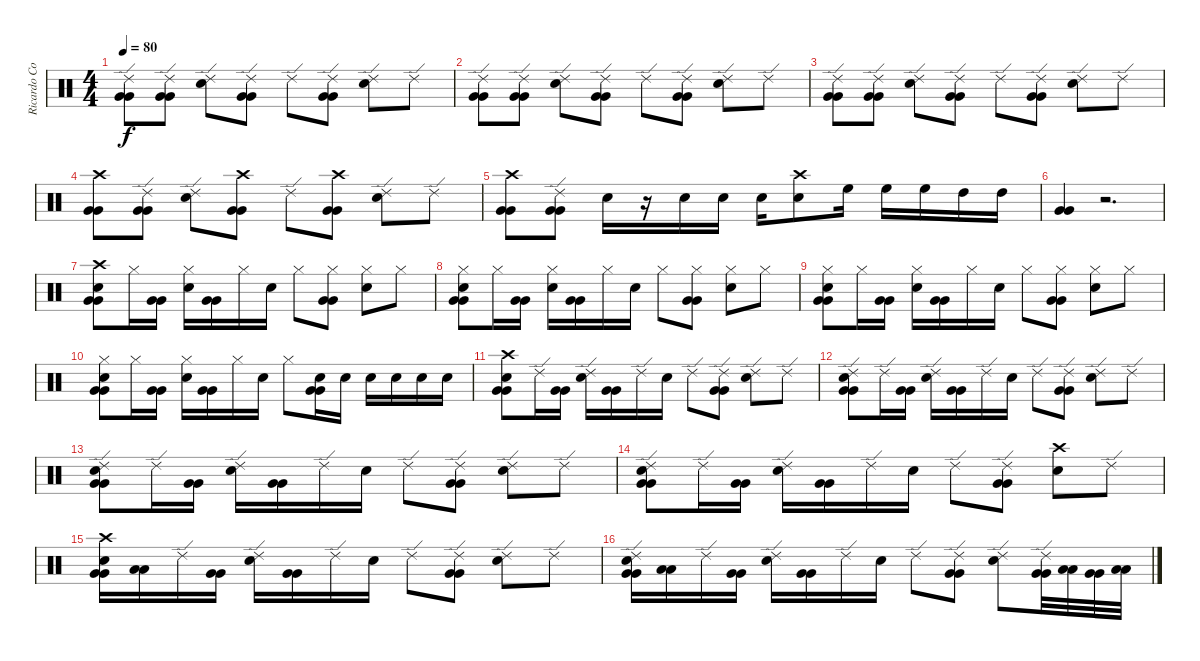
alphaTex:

\track ("Ricardo Confessori" "Ricardo Co") {instrument percussion}
\staff {score}
\articulation defaults
\ts (4 4)
\tempo 80
\clef neutral
\ks c
("Ride (edge) 2" "Very Low Tom (hit)" "Very Low Tom (hit)").8{dy f} ("Ride (edge) 2" "Very Low Tom (hit)" "Very Low Tom (hit)").8 ("Ride (edge) 2" "Electric Snare (hit)").8 ("Ride (edge) 2" "Very Low Tom (hit)" "Very Low Tom (hit)").8 "Ride (edge) 2".8 ("Ride (edge) 2" "Very Low Tom (hit)" "Very Low Tom (hit)").8 ("Ride (edge) 2" "Electric Snare (hit)").8 "Ride (edge) 2".8 |
("Ride (edge) 2" "Very Low Tom (hit)" "Very Low Tom (hit)").8 ("Ride (edge) 2" "Very Low Tom (hit)" "Very Low Tom (hit)").8 ("Ride (edge) 2" "Electric Snare (hit)").8 ("Ride (edge) 2" "Very Low Tom (hit)" "Very Low Tom (hit)").8 "Ride (edge) 2".8 ("Ride (edge) 2" "Very Low Tom (hit)" "Very Low Tom (hit)").8 ("Ride (edge) 2" "Electric Snare (hit)").8 "Ride (edge) 2".8 |
("Ride (edge) 2" "Very Low Tom (hit)" "Very Low Tom (hit)").8 ("Ride (edge) 2" "Very Low Tom (hit)" "Very Low Tom (hit)").8 ("Ride (edge) 2" "Electric Snare (hit)").8 ("Ride (edge) 2" "Very Low Tom (hit)" "Very Low Tom (hit)").8 "Ride (edge) 2".8 ("Ride (edge) 2" "Very Low Tom (hit)" "Very Low Tom (hit)").8 ("Ride (edge) 2" "Electric Snare (hit)").8 "Ride (edge) 2".8 |
("Crash high (hit)" "Very Low Tom (hit)" "Very Low Tom (hit)").8 ("Ride (edge) 2" "Very Low Tom (hit)" "Very Low Tom (hit)").8 ("Ride (edge) 2" "Electric Snare (hit)").8 ("Crash high (hit)" "Very Low Tom (hit)" "Very Low Tom (hit)").8 "Ride (edge) 2".8 ("Crash high (hit)" "Very Low Tom (hit)" "Very Low Tom (hit)").8 ("Ride (edge) 2" "Electric Snare (hit)").8 "Ride (edge) 2".8 |
("Crash high (hit)" "Very Low Tom (hit)" "Very Low Tom (hit)").8 ("Ride (edge) 2" "Very Low Tom (hit)" "Very Low Tom (hit)").8 "Electric Snare (hit)".16 r.16 "Electric Snare (hit)".16 "Electric Snare (hit)".16 "Electric Snare (hit)".16 ("Crash high (hit)" "Electric Snare (hit)").8 "High Floor Tom (hit)".16 "High Floor Tom (hit)".16 "High Floor Tom (hit)".16 "High Tom (hit)".16 "High Tom (hit)".16 |
("Very Low Tom (hit)" "Very Low Tom (hit)").4 r.2{d} |
("Crash high (hit)" "Electric Snare (hit)" "Very Low Tom (hit)" "Very Low Tom (hit)").8 "Hi-Hat (closed)".16 ("Very Low Tom (hit)" "Very Low Tom (hit)").16 ("Electric Snare (hit)" "Hi-Hat (closed)").16 ("Very Low Tom (hit)" "Very Low Tom (hit)").16 "Hi-Hat (closed)".16 "Electric Snare (hit)".16 "Hi-Hat (closed)".8 ("Hi-Hat (closed)" "Very Low Tom (hit)" "Very Low Tom (hit)").8 ("Electric Snare (hit)" "Hi-Hat (closed)").8 "Hi-Hat (closed)".8 |
("Electric Snare (hit)" "Hi-Hat (closed)" "Very Low Tom (hit)" "Very Low Tom (hit)").8 "Hi-Hat (closed)".16 ("Very Low Tom (hit)" "Very Low Tom (hit)").16 ("Electric Snare (hit)" "Hi-Hat (closed)").16 ("Very Low Tom (hit)" "Very Low Tom (hit)").16 "Hi-Hat (closed)".16 "Electric Snare (hit)".16 "Hi-Hat (closed)".8 ("Hi-Hat (closed)" "Very Low Tom (hit)" "Very Low Tom (hit)").8 ("Electric Snare (hit)" "Hi-Hat (closed)").8 "Hi-Hat (closed)".8 |
("Electric Snare (hit)" "Hi-Hat (closed)" "Very Low Tom (hit)" "Very Low Tom (hit)").8 "Hi-Hat (closed)".16 ("Very Low Tom (hit)" "Very Low Tom (hit)").16 ("Electric Snare (hit)" "Hi-Hat (closed)").16 ("Very Low Tom (hit)" "Very Low Tom (hit)").16 "Hi-Hat (closed)".16 "Electric Snare (hit)".16 "Hi-Hat (closed)".8 ("Hi-Hat (closed)" "Very Low Tom (hit)" "Very Low Tom (hit)").8 ("Electric Snare (hit)" "Hi-Hat (closed)").8 "Hi-Hat (closed)".8 |
("Electric Snare (hit)" "Hi-Hat (closed)" "Very Low Tom (hit)" "Very Low Tom (hit)").8 "Hi-Hat (closed)".16 ("Very Low Tom (hit)" "Very Low Tom (hit)").16 ("Electric Snare (hit)" "Hi-Hat (closed)").16 ("Very Low Tom (hit)" "Very Low Tom (hit)").16 "Hi-Hat (closed)".16 "Electric Snare (hit)".16 "Hi-Hat (closed)".8 ("Electric Snare (hit)" "Very Low Tom (hit)" "Very Low Tom (hit)").16 "Electric Snare (hit)".16 "Electric Snare (hit)".16 "Electric Snare (hit)".16 "Electric Snare (hit)".16 "Electric Snare (hit)".16 |
("Crash high (hit)" "Electric Snare (hit)" "Very Low Tom (hit)" "Very Low Tom (hit)").8 "Ride (edge) 2".16 ("Very Low Tom (hit)" "Very Low Tom (hit)").16 ("Electric Snare (hit)" "Ride (edge) 2").16 ("Very Low Tom (hit)" "Very Low Tom (hit)").16 "Ride (edge) 2".16 "Electric Snare (hit)".16 "Ride (edge) 2".8 ("Ride (edge) 2" "Very Low Tom (hit)" "Very Low Tom (hit)").8 ("Electric Snare (hit)" "Ride (edge) 2").8 "Ride (edge) 2".8 |
("Electric Snare (hit)" "Ride (edge) 2" "Very Low Tom (hit)" "Very Low Tom (hit)").8 "Ride (edge) 2".16 ("Very Low Tom (hit)" "Very Low Tom (hit)").16 ("Electric Snare (hit)" "Ride (edge) 2").16 ("Very Low Tom (hit)" "Very Low Tom (hit)").16 "Ride (edge) 2".16 "Electric Snare (hit)".16 "Ride (edge) 2".8 ("Ride (edge) 2" "Very Low Tom (hit)" "Very Low Tom (hit)").8 ("Electric Snare (hit)" "Ride (edge) 2").8 "Ride (edge) 2".8 |
("Electric Snare (hit)" "Ride (edge) 2" "Very Low Tom (hit)" "Very Low Tom (hit)").8 "Ride (edge) 2".16 ("Very Low Tom (hit)" "Very Low Tom (hit)").16 ("Electric Snare (hit)" "Ride (edge) 2").16 ("Very Low Tom (hit)" "Very Low Tom (hit)").16 "Ride (edge) 2".16 "Electric Snare (hit)".16 "Ride (edge) 2".8 ("Ride (edge) 2" "Very Low Tom (hit)" "Very Low Tom (hit)").8 ("Electric Snare (hit)" "Ride (edge) 2").8 "Ride (edge) 2".8 |
("Electric Snare (hit)" "Ride (edge) 2" "Very Low Tom (hit)" "Very Low Tom (hit)").8 "Ride (edge) 2".16 ("Very Low Tom (hit)" "Very Low Tom (hit)").16 ("Electric Snare (hit)" "Ride (edge) 2").16 ("Very Low Tom (hit)" "Very Low Tom (hit)").16 "Ride (edge) 2".16 "Electric Snare (hit)".16 "Ride (edge) 2".8 ("Ride (edge) 2" "Very Low Tom (hit)" "Very Low Tom (hit)").8 ("Crash high (hit)" "Electric Snare (hit)").8 "Ride (edge) 2".8 |
("Crash high (hit)" "Electric Snare (hit)" "Very Low Tom (hit)" "Very Low Tom (hit)").16 ("Low Floor Tom (hit)" "Low Floor Tom (hit)").16 "Ride (edge) 2".16 ("Very Low Tom (hit)" "Very Low Tom (hit)").16 ("Electric Snare (hit)" "Ride (edge) 2").16 ("Very Low Tom (hit)" "Very Low Tom (hit)").16 "Ride (edge) 2".16 "Electric Snare (hit)".16 "Ride (edge) 2".8 ("Ride (edge) 2" "Very Low Tom (hit)" "Very Low Tom (hit)").8 ("Electric Snare (hit)" "Ride (edge) 2").8 "Ride (edge) 2".8 |
("Electric Snare (hit)" "Ride (edge) 2" "Very Low Tom (hit)" "Very Low Tom (hit)").16 ("Low Floor Tom (hit)" "Low Floor Tom (hit)").16 "Ride (edge) 2".16 ("Very Low Tom (hit)" "Very Low Tom (hit)").16 ("Electric Snare (hit)" "Ride (edge) 2").16 ("Very Low Tom (hit)" "Very Low Tom (hit)").16 "Ride (edge) 2".16 "Electric Snare (hit)".16 "Ride (edge) 2".8 ("Ride (edge) 2" "Very Low Tom (hit)" "Very Low Tom (hit)").8 ("Electric Snare (hit)" "Ride (edge) 2").8 ("Ride (edge) 2" "Very Low Tom (hit)" "Very Low Tom (hit)").32 ("Low Floor Tom (hit)" "Low Floor Tom (hit)").32 ("Very Low Tom (hit)" "Very Low Tom (hit)").32 ("Low Floor Tom (hit)" "Low Floor Tom (hit)").32
